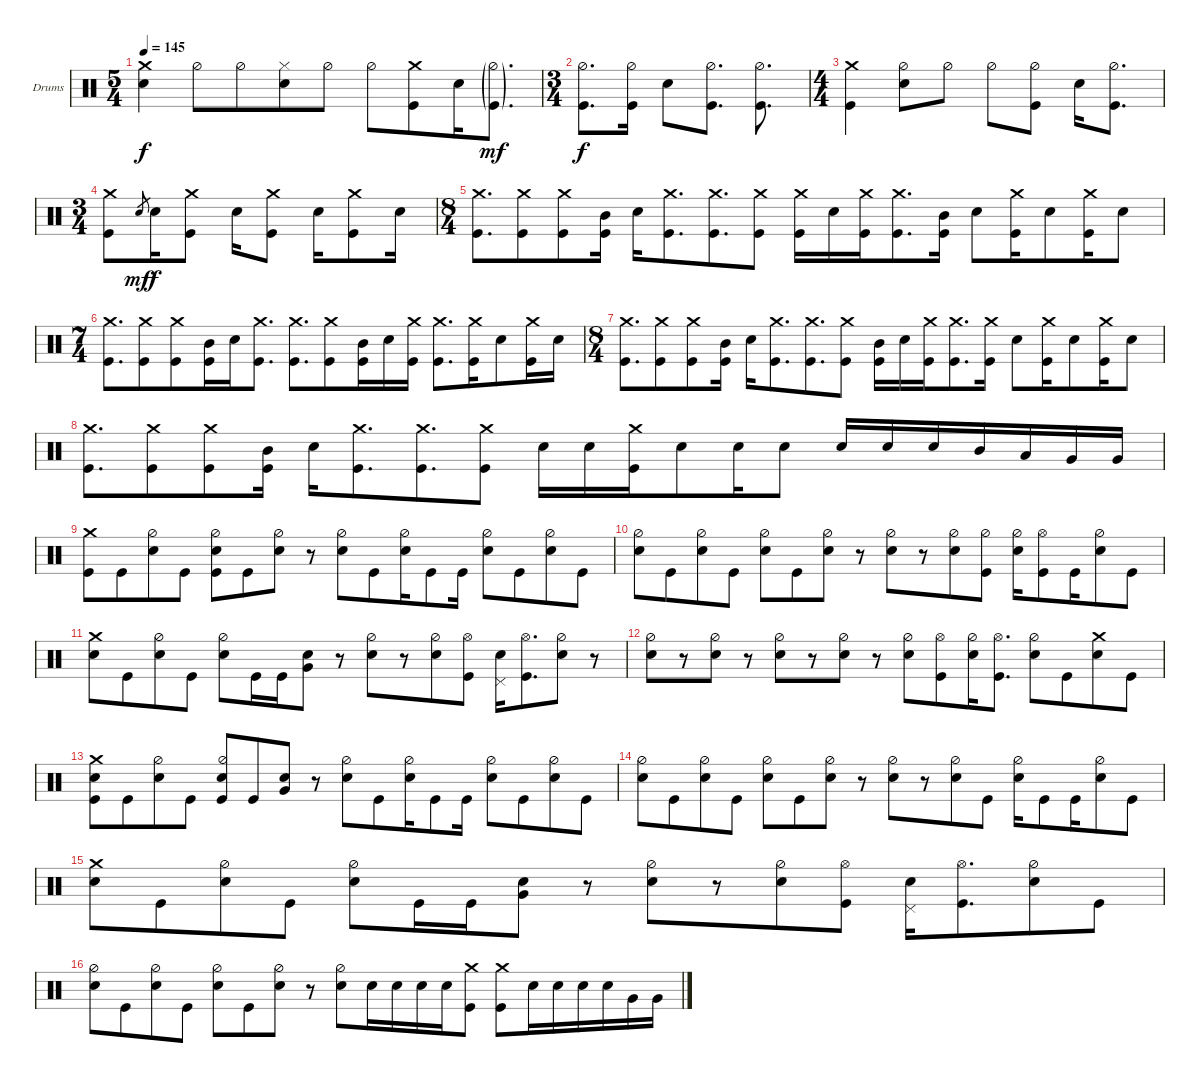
\bracketExtendMode groupsimilarinstruments
\firstSystemTrackNameOrientation horizontal
\otherSystemsTrackNameOrientation horizontal
\track ("Drumkit" "Drums") {instrument percussion}
\staff {score}
\articulation defaults
\ts (5 4)
\beaming (8 6 4)
\tempo 145
\clef neutral
\ks c
("Crash medium (hit)" "Snare (hit) 2").4{dy f} "Hi-Hat (half)".8 "Hi-Hat (half)".8 ("Hi-Hat (closed)" "Snare (hit) 2").8 "Hi-Hat (half)".8 "Hi-Hat (half)".8 ("Crash medium (hit)" "Kick (hit)").8 "Snare (hit) 2".16 ("Hi-Hat (half)"{g} "Kick (hit)"{g}).8{d dy mf} |
\ts (3 4)
\beaming (8 2 2 2)
("Hi-Hat (half)" "Kick (hit)").8{d dy f} ("Hi-Hat (half)" "Kick (hit)").16 "Snare (hit) 2".8 ("Hi-Hat (half)" "Kick (hit)").8{d} ("Hi-Hat (half)" "Kick (hit)").8{d} |
\ts (4 4)
\beaming (8 2 2 2 2)
("Crash medium (hit)" "Kick (hit)").4 ("Hi-Hat (half)" "Snare (hit) 2").8 "Hi-Hat (half)".8 "Hi-Hat (half)".8 ("Hi-Hat (half)" "Kick (hit)").8 "Snare (hit) 2".16 ("Hi-Hat (half)" "Kick (hit)").8{d} |
\ts (3 4)
\beaming (8 2 2 2)
("Crash medium (hit)" "Kick (hit)").8 "Snare (hit) 2".8{gr dy mf} "Snare (hit) 2".16{dy f} ("Crash medium (hit)" "Kick (hit)").8 "Snare (hit) 2".16 ("Crash medium (hit)" "Kick (hit)").8 "Snare (hit) 2".16 ("Crash medium (hit)" "Kick (hit)").8 "Snare (hit) 2".16 |
\ts (8 4)
\beaming (8 4 4 4 4)
("Crash medium (hit)" "Kick (hit)").8{d} ("Crash medium (hit)" "Kick (hit)").8 ("Crash medium (hit)" "Kick (hit)").8 ("Kick (hit)" "Mid Tom (hit)").16 "Snare (hit) 2".16 ("Crash medium (hit)" "Kick (hit)").8{d} ("Crash medium (hit)" "Kick (hit)").8{d} ("Crash medium (hit)" "Kick (hit)").8 ("Crash medium (hit)" "Kick (hit)").16 "Snare (hit) 2".16 ("Crash medium (hit)" "Kick (hit)").16 ("Crash medium (hit)" "Kick (hit)").8{d} ("Kick (hit)" "Mid Tom (hit)").16 "Snare (hit) 2".8 ("Crash medium (hit)" "Kick (hit)").16 "Snare (hit) 2".8 ("Crash medium (hit)" "Kick (hit)").16 "Snare (hit) 2".8 |
\ts (7 4)
\beaming (8 6 4 4)
("Crash medium (hit)" "Kick (hit)").8{d} ("Crash medium (hit)" "Kick (hit)").8 ("Crash medium (hit)" "Kick (hit)").8 ("Kick (hit)" "Mid Tom (hit)").16 "Snare (hit) 2".16 ("Crash medium (hit)" "Kick (hit)").8{d} ("Crash medium (hit)" "Kick (hit)").8{d} ("Crash medium (hit)" "Kick (hit)").8 ("Kick (hit)" "Mid Tom (hit)").16 "Snare (hit) 2".16 ("Crash medium (hit)" "Kick (hit)").16 ("Crash medium (hit)" "Kick (hit)").8{d} ("Crash medium (hit)" "Kick (hit)").16 "Snare (hit) 2".8 ("Crash medium (hit)" "Kick (hit)").16 "Snare (hit) 2".16 |
\ts (8 4)
\beaming (8 4 4 4 4)
("Crash medium (hit)" "Kick (hit)").8{d} ("Crash medium (hit)" "Kick (hit)").8 ("Crash medium (hit)" "Kick (hit)").8 ("Kick (hit)" "Mid Tom (hit)").16 "Snare (hit) 2".16 ("Crash medium (hit)" "Kick (hit)").8{d} ("Crash medium (hit)" "Kick (hit)").8{d} ("Crash medium (hit)" "Kick (hit)").8 ("Kick (hit)" "Mid Tom (hit)").16 "Snare (hit) 2".16 ("Crash medium (hit)" "Kick (hit)").16 ("Crash medium (hit)" "Kick (hit)").8{d} ("Crash medium (hit)" "Kick (hit)").16 "Snare (hit) 2".8 ("Crash medium (hit)" "Kick (hit)").16 "Snare (hit) 2".8 ("Crash medium (hit)" "Kick (hit)").16 "Snare (hit) 2".8 |
("Crash medium (hit)" "Kick (hit)").8{d} ("Crash medium (hit)" "Kick (hit)").8 ("Crash medium (hit)" "Kick (hit)").8 ("Kick (hit)" "Mid Tom (hit)").16 "Snare (hit) 2".16 ("Crash medium (hit)" "Kick (hit)").8{d} ("Crash medium (hit)" "Kick (hit)").8{d} ("Crash medium (hit)" "Kick (hit)").8 "Snare (hit) 2".16 "Snare (hit) 2".16 ("Crash medium (hit)" "Kick (hit)").16 "Snare (hit) 2".8 "Snare (hit) 2".16 "Snare (hit) 2".8 "Snare (hit) 2".16 "Snare (hit) 2".16 "Snare (hit) 2".16 "Mid Tom (hit)".16 "Low Tom (hit)".16 "Very Low Tom (hit)".16 "Very Low Tom (hit)".16 |
("Crash medium (hit)" "Kick (hit)").8 "Kick (hit)".8 ("Hi-Hat (half)" "Snare (hit) 2").8 "Kick (hit)".8 ("Hi-Hat (half)" "Snare (hit) 2" "Kick (hit)").8 "Kick (hit)".8 ("Hi-Hat (half)" "Snare (hit) 2").8 r.8 ("Hi-Hat (half)" "Snare (hit) 2").8 "Kick (hit)".8 ("Hi-Hat (half)" "Snare (hit) 2").16 "Kick (hit)".8 "Kick (hit)".16 ("Hi-Hat (half)" "Snare (hit) 2").8 "Kick (hit)".8 ("Hi-Hat (half)" "Snare (hit) 2").8 "Kick (hit)".8 |
("Hi-Hat (half)" "Snare (hit) 2").8 "Kick (hit)".8 ("Hi-Hat (half)" "Snare (hit) 2").8 "Kick (hit)".8 ("Hi-Hat (half)" "Snare (hit) 2").8 "Kick (hit)".8 ("Hi-Hat (half)" "Snare (hit) 2").8 r.8 ("Hi-Hat (half)" "Snare (hit) 2").8 r.8 ("Hi-Hat (half)" "Snare (hit) 2").8 ("Hi-Hat (half)" "Kick (hit)").8 ("Hi-Hat (half)" "Snare (hit) 2").16 ("Hi-Hat (open)" "Kick (hit)").8 "Kick (hit)".16 ("Hi-Hat (half)" "Snare (hit) 2").8 "Kick (hit)".8 |
("Crash medium (hit)" "Snare (hit) 2").8 "Kick (hit)".8 ("Hi-Hat (half)" "Snare (hit) 2").8 "Kick (hit)".8 ("Hi-Hat (half)" "Snare (hit) 2").8 "Kick (hit)".16 "Kick (hit)".16 ("Very Low Tom (hit)" "Snare (hit) 2").8 r.8 ("Hi-Hat (half)" "Snare (hit) 2").8 r.8 ("Hi-Hat (half)" "Snare (hit) 2").8 ("Hi-Hat (open)" "Kick (hit)").8 ("Pedal Hi-Hat (hit)" "Snare (hit) 2").16 ("Hi-Hat (open)" "Kick (hit)").8{d} ("Hi-Hat (half)" "Snare (hit) 2").8 r.8 |
("Hi-Hat (half)" "Snare (hit) 2").8 r.8 ("Hi-Hat (half)" "Snare (hit) 2").8 r.8 ("Hi-Hat (half)" "Snare (hit) 2").8 r.8 ("Hi-Hat (half)" "Snare (hit) 2").8 r.8 ("Hi-Hat (half)" "Snare (hit) 2").8 ("Hi-Hat (open)" "Kick (hit)").8 ("Hi-Hat (half)" "Snare (hit) 2").16 ("Hi-Hat (open)" "Kick (hit)").8{d} ("Hi-Hat (half)" "Snare (hit) 2").8 "Kick (hit)".8 ("Snare (hit) 2" "Crash medium (hit)").8 "Kick (hit)".8 |
("Crash medium (hit)" "Kick (hit)" "Snare (hit) 2").8 "Kick (hit)".8 ("Hi-Hat (half)" "Snare (hit) 2").8 "Kick (hit)".8 ("Hi-Hat (half)" "Snare (hit) 2" "Kick (hit)").8 "Kick (hit)".8 ("Very Low Tom (hit)" "Snare (hit) 2").8 r.8 ("Hi-Hat (half)" "Snare (hit) 2").8 "Kick (hit)".8 ("Hi-Hat (half)" "Snare (hit) 2").16 "Kick (hit)".8 "Kick (hit)".16 ("Hi-Hat (half)" "Snare (hit) 2").8 "Kick (hit)".8 ("Hi-Hat (half)" "Snare (hit) 2").8 "Kick (hit)".8 |
("Hi-Hat (half)" "Snare (hit) 2").8 "Kick (hit)".8 ("Hi-Hat (half)" "Snare (hit) 2").8 "Kick (hit)".8 ("Hi-Hat (half)" "Snare (hit) 2").8 "Kick (hit)".8 ("Hi-Hat (half)" "Snare (hit) 2").8 r.8 ("Hi-Hat (half)" "Snare (hit) 2").8 r.8 ("Hi-Hat (half)" "Snare (hit) 2").8 "Kick (hit)".8 ("Hi-Hat (half)" "Snare (hit) 2").16 "Kick (hit)".8 "Kick (hit)".16 ("Hi-Hat (half)" "Snare (hit) 2").8 "Kick (hit)".8 |
("Crash medium (hit)" "Snare (hit) 2").8 "Kick (hit)".8 ("Hi-Hat (half)" "Snare (hit) 2").8 "Kick (hit)".8 ("Hi-Hat (half)" "Snare (hit) 2").8 "Kick (hit)".16 "Kick (hit)".16 ("Very Low Tom (hit)" "Snare (hit) 2").8 r.8 ("Hi-Hat (half)" "Snare (hit) 2").8 r.8 ("Hi-Hat (half)" "Snare (hit) 2").8 ("Hi-Hat (open)" "Kick (hit)").8 ("Pedal Hi-Hat (hit)" "Snare (hit) 2").16 ("Hi-Hat (open)" "Kick (hit)").8{d} ("Hi-Hat (half)" "Snare (hit) 2").8 "Kick (hit)".8 |
("Hi-Hat (half)" "Snare (hit) 2").8 "Kick (hit)".8 ("Hi-Hat (half)" "Snare (hit) 2").8 "Kick (hit)".8 ("Hi-Hat (half)" "Snare (hit) 2").8 "Kick (hit)".8 ("Hi-Hat (half)" "Snare (hit) 2").8 r.8 ("Hi-Hat (half)" "Snare (hit) 2").8 "Snare (hit) 2".16 "Snare (hit) 2".16 "Snare (hit) 2".16 "Snare (hit) 2".16 ("Crash medium (hit)" "Kick (hit)").8 ("Crash medium (hit)" "Kick (hit)").8 "Snare (hit) 2".16 "Snare (hit) 2".16 "Snare (hit) 2".16 "Snare (hit) 2".16 "Very Low Tom (hit)".16 "Very Low Tom (hit)".16
